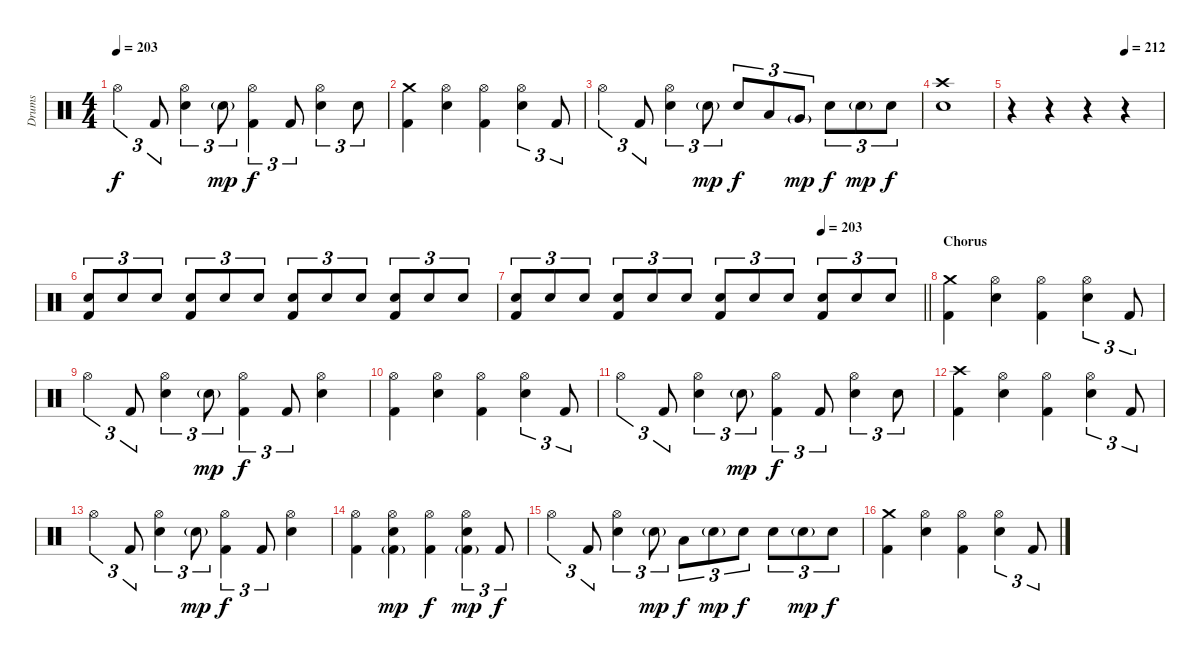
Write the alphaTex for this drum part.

\track ("Drums" "Drums") {instrument percussion}
\staff {score}
\articulation defaults
\ts (4 4)
\tempo 203
\clef neutral
\ks c "Hi-Hat (open)".4{tu (3 2) dy f} "Kick (hit) 2".8{tu (3 2)}
("Hi-Hat (open)" "Electric Snare (hit)").4{tu (3 2)} "Electric Snare (hit)"{g}.8{tu (3 2) dy mp} ("Hi-Hat (open)" "Kick (hit) 2").4{tu (3 2) dy f} "Kick (hit) 2".8{tu (3 2)} ("Hi-Hat (open)" "Electric Snare (hit)").4{tu (3 2)} "Electric Snare (hit)".8{tu (3 2)} |
("Crash medium (hit)" "Kick (hit) 2").4 ("Hi-Hat (open)" "Electric Snare (hit)").4 ("Hi-Hat (open)" "Kick (hit) 2").4 ("Hi-Hat (open)" "Electric Snare (hit)").4{tu (3 2)} "Kick (hit) 2".8{tu (3 2)} |
"Hi-Hat (open)".4{tu (3 2)} "Kick (hit) 2".8{tu (3 2)} ("Hi-Hat (open)" "Electric Snare (hit)").4{tu (3 2)} "Electric Snare (hit)"{g}.8{tu (3 2) dy mp} "Electric Snare (hit)".8{tu (3 2) dy f} "Low Tom (hit)".8{tu (3 2)} "Very Low Tom (hit)"{g}.8{tu (3 2) dy mp} "Electric Snare (hit)".8{tu (3 2) dy f} "Electric Snare (hit)"{g}.8{tu (3 2) dy mp} "Electric Snare (hit)".8{tu (3 2) dy f} |
("Crash high (hit)" "Electric Snare (hit)").1 |
\tempo (212 0.75)
r.4 r.4 r.4 r.4 |
("Electric Snare (hit)" "Kick (hit) 2").8{tu (3 2)} "Electric Snare (hit)".8{tu (3 2)} "Electric Snare (hit)".8{tu (3 2)} ("Electric Snare (hit)" "Kick (hit) 2").8{tu (3 2)} "Electric Snare (hit)".8{tu (3 2)} "Electric Snare (hit)".8{tu (3 2)} ("Electric Snare (hit)" "Kick (hit) 2").8{tu (3 2)} "Electric Snare (hit)".8{tu (3 2)} "Electric Snare (hit)".8{tu (3 2)} ("Electric Snare (hit)" "Kick (hit) 2").8{tu (3 2)} "Electric Snare (hit)".8{tu (3 2)} "Electric Snare (hit)".8{tu (3 2)} |
\tempo (203 0.75)
\barLineRight lightlight
("Electric Snare (hit)" "Kick (hit) 2").8{tu (3 2)} "Electric Snare (hit)".8{tu (3 2)} "Electric Snare (hit)".8{tu (3 2)} ("Electric Snare (hit)" "Kick (hit) 2").8{tu (3 2)} "Electric Snare (hit)".8{tu (3 2)} "Electric Snare (hit)".8{tu (3 2)} ("Electric Snare (hit)" "Kick (hit) 2").8{tu (3 2)} "Electric Snare (hit)".8{tu (3 2)} "Electric Snare (hit)".8{tu (3 2)} ("Electric Snare (hit)" "Kick (hit) 2").8{tu (3 2)} "Electric Snare (hit)".8{tu (3 2)} "Electric Snare (hit)".8{tu (3 2)} |
\section ("" "Chorus")
("Crash medium (hit)" "Kick (hit) 2").4 ("Hi-Hat (open)" "Electric Snare (hit)").4 ("Hi-Hat (open)" "Kick (hit) 2").4 ("Hi-Hat (open)" "Electric Snare (hit)").4{tu (3 2)} "Kick (hit) 2".8{tu (3 2)} |
"Hi-Hat (open)".4{tu (3 2)} "Kick (hit) 2".8{tu (3 2)} ("Hi-Hat (open)" "Electric Snare (hit)").4{tu (3 2)} "Electric Snare (hit)"{g}.8{tu (3 2) dy mp} ("Hi-Hat (open)" "Kick (hit) 2").4{tu (3 2) dy f} "Kick (hit) 2".8{tu (3 2)} ("Hi-Hat (open)" "Electric Snare (hit)").4 |
("Hi-Hat (open)" "Kick (hit) 2").4 ("Hi-Hat (open)" "Electric Snare (hit)").4 ("Hi-Hat (open)" "Kick (hit) 2").4 ("Hi-Hat (open)" "Electric Snare (hit)").4{tu (3 2)} "Kick (hit) 2".8{tu (3 2)} |
"Hi-Hat (open)".4{tu (3 2)} "Kick (hit) 2".8{tu (3 2)} ("Hi-Hat (open)" "Electric Snare (hit)").4{tu (3 2)} "Electric Snare (hit)"{g}.8{tu (3 2) dy mp} ("Hi-Hat (open)" "Kick (hit) 2").4{tu (3 2) dy f} "Kick (hit) 2".8{tu (3 2)} ("Hi-Hat (open)" "Electric Snare (hit)").4{tu (3 2)} "Electric Snare (hit)".8{tu (3 2)} |
("Crash high (hit)" "Kick (hit) 2").4 ("Hi-Hat (open)" "Electric Snare (hit)").4 ("Hi-Hat (open)" "Kick (hit) 2").4 ("Hi-Hat (open)" "Electric Snare (hit)").4{tu (3 2)} "Kick (hit) 2".8{tu (3 2)} |
"Hi-Hat (open)".4{tu (3 2)} "Kick (hit) 2".8{tu (3 2)} ("Hi-Hat (open)" "Electric Snare (hit)").4{tu (3 2)} "Electric Snare (hit)"{g}.8{tu (3 2) dy mp} ("Hi-Hat (open)" "Kick (hit) 2").4{tu (3 2) dy f} "Kick (hit) 2".8{tu (3 2)} ("Hi-Hat (open)" "Electric Snare (hit)").4 |
("Hi-Hat (open)" "Kick (hit) 2").4 ("Hi-Hat (open)" "Electric Snare (hit)" "Kick (hit) 2"{g}).4{dy mp} ("Hi-Hat (open)" "Kick (hit) 2").4{dy f} ("Hi-Hat (open)" "Electric Snare (hit)" "Kick (hit) 2"{g}).4{tu (3 2) dy mp} "Kick (hit) 2".8{tu (3 2) dy f} |
"Hi-Hat (open)".4{tu (3 2)} "Kick (hit) 2".8{tu (3 2)} ("Hi-Hat (open)" "Electric Snare (hit)").4{tu (3 2)} "Electric Snare (hit)"{g}.8{tu (3 2) dy mp} "Low Tom (hit)".8{tu (3 2) dy f} "Electric Snare (hit)"{g}.8{tu (3 2) dy mp} "Electric Snare (hit)".8{tu (3 2) dy f} "Electric Snare (hit)".8{tu (3 2)} "Electric Snare (hit)"{g}.8{tu (3 2) dy mp} "Electric Snare (hit)".8{tu (3 2) dy f} |
("Crash medium (hit)" "Kick (hit) 2").4 ("Hi-Hat (open)" "Electric Snare (hit)").4 ("Hi-Hat (open)" "Kick (hit) 2").4 ("Hi-Hat (open)" "Electric Snare (hit)").4{tu (3 2)} "Kick (hit) 2".8{tu (3 2)}
